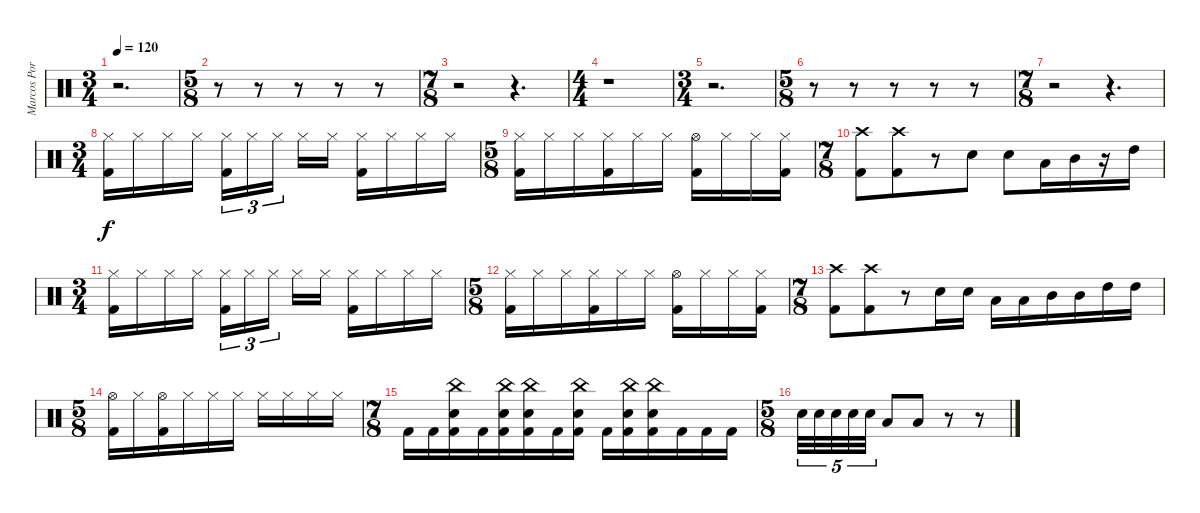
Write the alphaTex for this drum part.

\track ("Marcos Portinol" "Marcos Por") {instrument percussion}
\staff {score}
\articulation defaults
\ts (3 4)
\tempo 120
\clef neutral
\ks c
r.2{d dy f} |
\ts (5 8)
r.8 r.8 r.8 r.8 r.8 |
\ts (7 8)
r.2 r.4{d} |
\ts (4 4)
r.1 |
\ts (3 4)
r.2{d} |
\ts (5 8)
r.8 r.8 r.8 r.8 r.8 |
\ts (7 8)
r.2 r.4{d} |
\ts (3 4)
("Kick (hit) 2" "Hi-Hat (closed)").16 "Hi-Hat (closed)".16 "Hi-Hat (closed)".16 "Hi-Hat (closed)".16 ("Kick (hit) 2" "Hi-Hat (closed)").16{tu (3 2)} "Hi-Hat (closed)".16{tu (3 2)} "Hi-Hat (closed)".16{tu (3 2)} "Hi-Hat (closed)".16 "Hi-Hat (closed)".16 ("Kick (hit) 2" "Hi-Hat (closed)").16 "Hi-Hat (closed)".16 "Hi-Hat (closed)".16 "Hi-Hat (closed)".16 |
\ts (5 8)
("Kick (hit) 2" "Hi-Hat (closed)").16 "Hi-Hat (closed)".16 "Hi-Hat (closed)".16 ("Kick (hit) 2" "Hi-Hat (closed)").16 "Hi-Hat (closed)".16 "Hi-Hat (closed)".16 ("Kick (hit) 2" "Hi-Hat (open)").16 "Hi-Hat (closed)".16 "Hi-Hat (closed)".16 ("Kick (hit) 2" "Hi-Hat (closed)").16 |
\ts (7 8)
("Kick (hit) 2" "Crash high (hit)").8 ("Kick (hit) 2" "Crash high (hit)").8 r.8 "Electric Snare (hit)".8 "Electric Snare (hit)".8 "Low Tom (hit)".16 "Mid Tom (hit)".16 r.16 "High Tom (hit)".16 |
\ts (3 4)
("Kick (hit) 2" "Hi-Hat (closed)").16 "Hi-Hat (closed)".16 "Hi-Hat (closed)".16 "Hi-Hat (closed)".16 ("Kick (hit) 2" "Hi-Hat (closed)").16{tu (3 2)} "Hi-Hat (closed)".16{tu (3 2)} "Hi-Hat (closed)".16{tu (3 2)} "Hi-Hat (closed)".16 "Hi-Hat (closed)".16 ("Kick (hit) 2" "Hi-Hat (closed)").16 "Hi-Hat (closed)".16 "Hi-Hat (closed)".16 "Hi-Hat (closed)".16 |
\ts (5 8)
("Kick (hit) 2" "Hi-Hat (closed)").16 "Hi-Hat (closed)".16 "Hi-Hat (closed)".16 ("Kick (hit) 2" "Hi-Hat (closed)").16 "Hi-Hat (closed)".16 "Hi-Hat (closed)".16 ("Kick (hit) 2" "Hi-Hat (open)").16 "Hi-Hat (closed)".16 "Hi-Hat (closed)".16 ("Kick (hit) 2" "Hi-Hat (closed)").16 |
\ts (7 8)
("Kick (hit) 2" "Crash high (hit)").8 ("Kick (hit) 2" "Crash high (hit)").8 r.8 "Electric Snare (hit)".16 "Electric Snare (hit)".16 "Low Tom (hit)".16 "Low Tom (hit)".16 "Mid Tom (hit)".16 "Mid Tom (hit)".16 "High Tom (hit)".16 "High Tom (hit)".16 |
\ts (5 8)
("Kick (hit) 2" "Hi-Hat (open)").16 "Hi-Hat (closed)".16 ("Kick (hit) 2" "Hi-Hat (open)").16 "Hi-Hat (closed)".16 "Hi-Hat (closed)".16 "Hi-Hat (closed)".16 "Hi-Hat (closed)".16 "Hi-Hat (closed)".16 "Hi-Hat (closed)".16 "Hi-Hat (closed)".16 |
\ts (7 8)
"Kick (hit) 2".16 "Kick (hit) 2".16 ("Kick (hit) 2" "Electric Snare (hit)" "China (hit)").16 "Kick (hit) 2".16 ("Kick (hit) 2" "Electric Snare (hit)" "China (hit)").16 ("Kick (hit) 2" "Electric Snare (hit)" "China (hit)").16 "Kick (hit) 2".16 ("Kick (hit) 2" "Electric Snare (hit)" "China (hit)").16 "Kick (hit) 2".16 ("Kick (hit) 2" "Electric Snare (hit)" "China (hit)").16 ("Kick (hit) 2" "Electric Snare (hit)" "China (hit)").16 "Kick (hit) 2".16 "Kick (hit) 2".16 "Kick (hit) 2".16 |
\ts (5 8)
"Electric Snare (hit)".32{tu (5 4)} "Electric Snare (hit)".32{tu (5 4)} "Electric Snare (hit)".32{tu (5 4)} "Electric Snare (hit)".32{tu (5 4)} "Electric Snare (hit)".32{tu (5 4)} "Low Tom (hit)".8 "Low Tom (hit)".8 r.8 r.8
